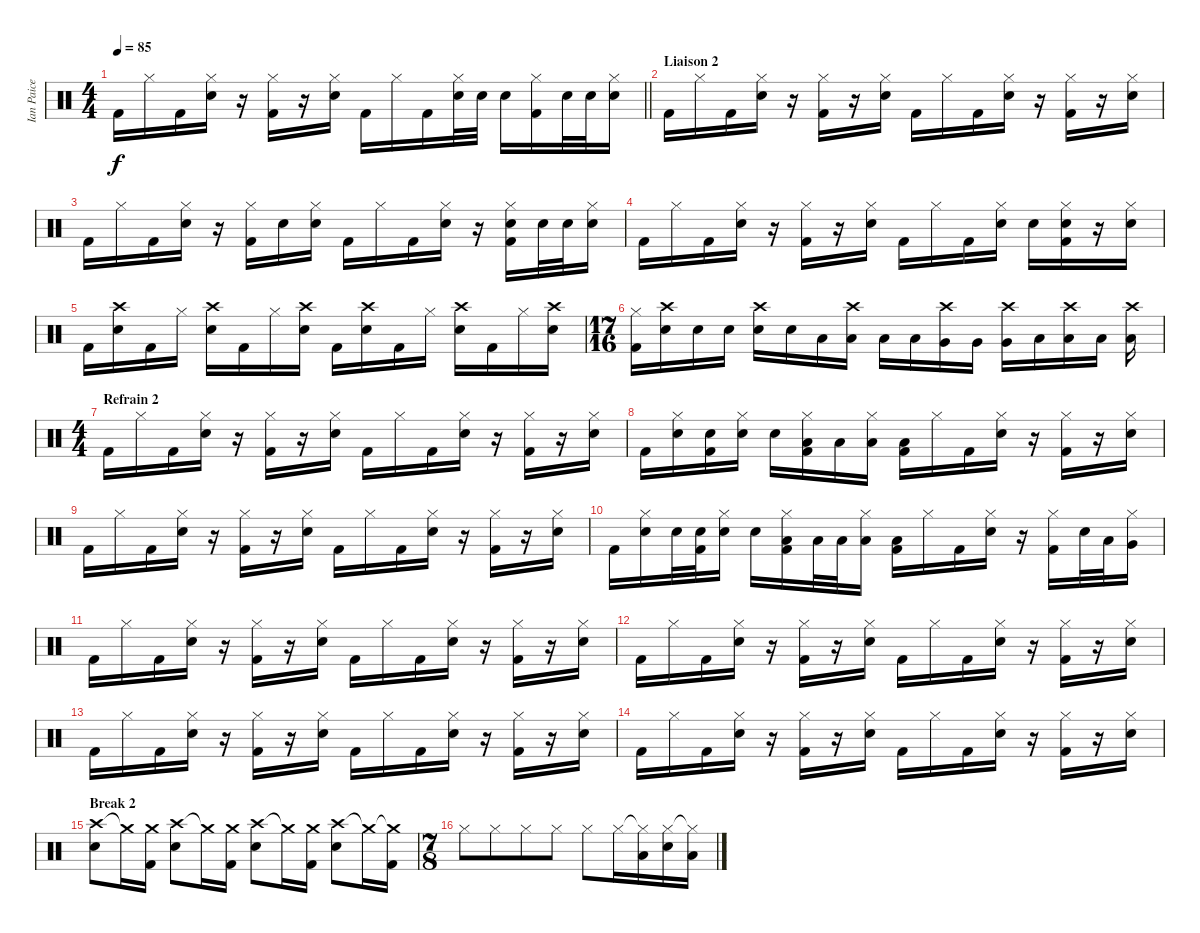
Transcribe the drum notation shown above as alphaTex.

\track ("Ian Paice" "Ian Paice") {instrument percussion}
\staff {score}
\articulation defaults
\ts (4 4)
\tempo 85
\clef neutral
\barLineRight lightlight
\ks c "Kick (hit) 2".16{dy f} "Hi-Hat (closed)".16 "Kick (hit) 2".16
("Hi-Hat (closed)" "Snare (hit) 2").16 r.16 ("Hi-Hat (closed)" "Kick (hit) 2").16 r.16 ("Hi-Hat (closed)" "Snare (hit) 2").16 "Kick (hit) 2".16 "Hi-Hat (closed)".16 "Kick (hit) 2".16 ("Hi-Hat (closed)" "Snare (hit) 2").32 "Snare (hit) 2".32 "Snare (hit) 2".16 ("Hi-Hat (closed)" "Kick (hit) 2").16 "Snare (hit) 2".32 "Snare (hit) 2".32 ("Hi-Hat (closed)" "Snare (hit) 2").16 |
\section ("" "Liaison 2")
"Kick (hit) 2".16 "Hi-Hat (closed)".16 "Kick (hit) 2".16 ("Hi-Hat (closed)" "Snare (hit) 2").16 r.16 ("Hi-Hat (closed)" "Kick (hit) 2").16 r.16 ("Hi-Hat (closed)" "Snare (hit) 2").16 "Kick (hit) 2".16 "Hi-Hat (closed)".16 "Kick (hit) 2".16 ("Hi-Hat (closed)" "Snare (hit) 2").16 r.16 ("Hi-Hat (closed)" "Kick (hit) 2").16 r.16 ("Hi-Hat (closed)" "Snare (hit) 2").16 |
"Kick (hit) 2".16 "Hi-Hat (closed)".16 "Kick (hit) 2".16 ("Hi-Hat (closed)" "Snare (hit) 2").16 r.16 ("Hi-Hat (closed)" "Kick (hit) 2").16 "Snare (hit) 2".16 ("Hi-Hat (closed)" "Snare (hit) 2").16 "Kick (hit) 2".16 "Hi-Hat (closed)".16 "Kick (hit) 2".16 ("Hi-Hat (closed)" "Snare (hit) 2").16 r.16 ("Hi-Hat (closed)" "Snare (hit) 2" "Kick (hit) 2").16 "Snare (hit) 2".32 "Snare (hit) 2".32 ("Hi-Hat (closed)" "Snare (hit) 2").16 |
"Kick (hit) 2".16 "Hi-Hat (closed)".16 "Kick (hit) 2".16 ("Hi-Hat (closed)" "Snare (hit) 2").16 r.16 ("Hi-Hat (closed)" "Kick (hit) 2").16 r.16 ("Hi-Hat (closed)" "Snare (hit) 2").16 "Kick (hit) 2".16 "Hi-Hat (closed)".16 "Kick (hit) 2".16 ("Hi-Hat (closed)" "Snare (hit) 2").16 "Snare (hit) 2".16 ("Hi-Hat (closed)" "Snare (hit) 2" "Kick (hit) 2").16 r.16 ("Hi-Hat (closed)" "Snare (hit) 2").16 |
"Kick (hit) 2".16 ("Crash high (hit)" "Snare (hit) 2").16 "Kick (hit) 2".16 "Hi-Hat (closed)".16 ("Crash high (hit)" "Snare (hit) 2").16 "Kick (hit) 2".16 "Hi-Hat (closed)".16 ("Crash high (hit)" "Snare (hit) 2").16 "Kick (hit) 2".16 ("Crash high (hit)" "Snare (hit) 2").16 "Kick (hit) 2".16 "Hi-Hat (closed)".16 ("Crash high (hit)" "Snare (hit) 2").16 "Kick (hit) 2".16 "Hi-Hat (closed)".16 ("Crash high (hit)" "Snare (hit) 2").16 |
\ts (17 16)
("Hi-Hat (closed)" "Kick (hit) 2").16 ("Crash high (hit)" "Snare (hit) 2").16 "Snare (hit) 2".16 "Snare (hit) 2".16 ("Crash high (hit)" "Snare (hit) 2").16 "Snare (hit) 2".16 "Low Tom (hit)".16 ("Crash high (hit)" "Low Tom (hit)").16 "Low Tom (hit)".16 "Low Tom (hit)".16 ("Crash high (hit)" "Very Low Tom (hit)").16 "Very Low Tom (hit)".16 ("Crash high (hit)" "Very Low Tom (hit)").16 "Low Floor Tom (hit)".16 ("Crash high (hit)" "Low Floor Tom (hit)").16 "Low Floor Tom (hit)".16 ("Crash high (hit)" "Low Floor Tom (hit)").16 |
\ts (4 4)
\section ("" "Refrain 2")
"Kick (hit) 2".16 "Hi-Hat (closed)".16 "Kick (hit) 2".16 ("Hi-Hat (closed)" "Snare (hit) 2").16 r.16 ("Hi-Hat (closed)" "Kick (hit) 2").16 r.16 ("Hi-Hat (closed)" "Snare (hit) 2").16 "Kick (hit) 2".16 "Hi-Hat (closed)".16 "Kick (hit) 2".16 ("Hi-Hat (closed)" "Snare (hit) 2").16 r.16 ("Hi-Hat (closed)" "Kick (hit) 2").16 r.16 ("Hi-Hat (closed)" "Snare (hit) 2").16 |
"Kick (hit) 2".16 ("Hi-Hat (closed)" "Snare (hit) 2").16 ("Snare (hit) 2" "Kick (hit) 2").16 ("Hi-Hat (closed)" "Snare (hit) 2").16 "Snare (hit) 2".16 ("Hi-Hat (closed)" "Low Tom (hit)" "Kick (hit) 2").16 "Low Tom (hit)".16 ("Hi-Hat (closed)" "Low Tom (hit)").16 ("Low Tom (hit)" "Kick (hit) 2").16 "Hi-Hat (closed)".16 "Kick (hit) 2".16 ("Hi-Hat (closed)" "Snare (hit) 2").16 r.16 ("Hi-Hat (closed)" "Kick (hit) 2").16 r.16 ("Hi-Hat (closed)" "Snare (hit) 2").16 |
"Kick (hit) 2".16 "Hi-Hat (closed)".16 "Kick (hit) 2".16 ("Hi-Hat (closed)" "Snare (hit) 2").16 r.16 ("Hi-Hat (closed)" "Kick (hit) 2").16 r.16 ("Hi-Hat (closed)" "Snare (hit) 2").16 "Kick (hit) 2".16 "Hi-Hat (closed)".16 "Kick (hit) 2".16 ("Hi-Hat (closed)" "Snare (hit) 2").16 r.16 ("Hi-Hat (closed)" "Kick (hit) 2").16 r.16 ("Hi-Hat (closed)" "Snare (hit) 2").16 |
"Kick (hit) 2".16 ("Hi-Hat (closed)" "Snare (hit) 2").16 "Snare (hit) 2".32 ("Snare (hit) 2" "Kick (hit) 2").32 ("Hi-Hat (closed)" "Snare (hit) 2").16 "Snare (hit) 2".16 ("Hi-Hat (closed)" "Low Tom (hit)" "Kick (hit) 2").16 "Low Tom (hit)".32 "Low Tom (hit)".32 ("Hi-Hat (closed)" "Low Tom (hit)").16 ("Low Tom (hit)" "Kick (hit) 2").16 "Hi-Hat (closed)".16 "Kick (hit) 2".16 ("Hi-Hat (closed)" "Snare (hit) 2").16 r.16 ("Hi-Hat (closed)" "Kick (hit) 2").16 "Snare (hit) 2".32 "Low Tom (hit)".32 ("Hi-Hat (closed)" "Very Low Tom (hit)").16 |
"Kick (hit) 2".16 "Hi-Hat (closed)".16 "Kick (hit) 2".16 ("Hi-Hat (closed)" "Snare (hit) 2").16 r.16 ("Hi-Hat (closed)" "Kick (hit) 2").16 r.16 ("Hi-Hat (closed)" "Snare (hit) 2").16 "Kick (hit) 2".16 "Hi-Hat (closed)".16 "Kick (hit) 2".16 ("Hi-Hat (closed)" "Snare (hit) 2").16 r.16 ("Hi-Hat (closed)" "Kick (hit) 2").16 r.16 ("Hi-Hat (closed)" "Snare (hit) 2").16 |
"Kick (hit) 2".16 "Hi-Hat (closed)".16 "Kick (hit) 2".16 ("Hi-Hat (closed)" "Snare (hit) 2").16 r.16 ("Hi-Hat (closed)" "Kick (hit) 2").16 r.16 ("Hi-Hat (closed)" "Snare (hit) 2").16 "Kick (hit) 2".16 "Hi-Hat (closed)".16 "Kick (hit) 2".16 ("Hi-Hat (closed)" "Snare (hit) 2").16 r.16 ("Hi-Hat (closed)" "Kick (hit) 2").16 r.16 ("Hi-Hat (closed)" "Snare (hit) 2").16 |
"Kick (hit) 2".16 "Hi-Hat (closed)".16 "Kick (hit) 2".16 ("Hi-Hat (closed)" "Snare (hit) 2").16 r.16 ("Hi-Hat (closed)" "Kick (hit) 2").16 r.16 ("Hi-Hat (closed)" "Snare (hit) 2").16 "Kick (hit) 2".16 "Hi-Hat (closed)".16 "Kick (hit) 2".16 ("Hi-Hat (closed)" "Snare (hit) 2").16 r.16 ("Hi-Hat (closed)" "Kick (hit) 2").16 r.16 ("Hi-Hat (closed)" "Snare (hit) 2").16 |
"Kick (hit) 2".16 "Hi-Hat (closed)".16 "Kick (hit) 2".16 ("Hi-Hat (closed)" "Snare (hit) 2").16 r.16 ("Hi-Hat (closed)" "Kick (hit) 2").16 r.16 ("Hi-Hat (closed)" "Snare (hit) 2").16 "Kick (hit) 2".16 "Hi-Hat (closed)".16 "Kick (hit) 2".16 ("Hi-Hat (closed)" "Snare (hit) 2").16 r.16 ("Hi-Hat (closed)" "Kick (hit) 2").16 r.16 ("Hi-Hat (closed)" "Snare (hit) 2").16 |
\section ("" "Break 2")
("Crash high (hit)" "Snare (hit) 2").8 "Crash medium (hit)"{t}.16 ("Crash medium (hit)" "Kick (hit) 2").16 ("Crash high (hit)" "Snare (hit) 2").8 "Crash medium (hit)"{t}.16 ("Crash medium (hit)" "Kick (hit) 2").16 ("Crash high (hit)" "Snare (hit) 2").8 "Crash medium (hit)"{t}.16 ("Crash medium (hit)" "Kick (hit) 2").16 ("Crash high (hit)" "Snare (hit) 2").8 "Crash medium (hit)"{t}.16 ("Crash medium (hit)"{t} "Kick (hit) 2").16 |
\ts (7 8)
"Hi-Hat (closed)".8 "Hi-Hat (closed)".8 "Hi-Hat (closed)".8 "Hi-Hat (closed)".8 "Hi-Hat (closed)".8 "Hi-Hat (closed)".16 ("Hi-Hat (closed)"{t} "Low Floor Tom (hit)").16 ("Hi-Hat (closed)" "Snare (hit) 2").16 ("Hi-Hat (closed)"{t} "Low Floor Tom (hit)").16
